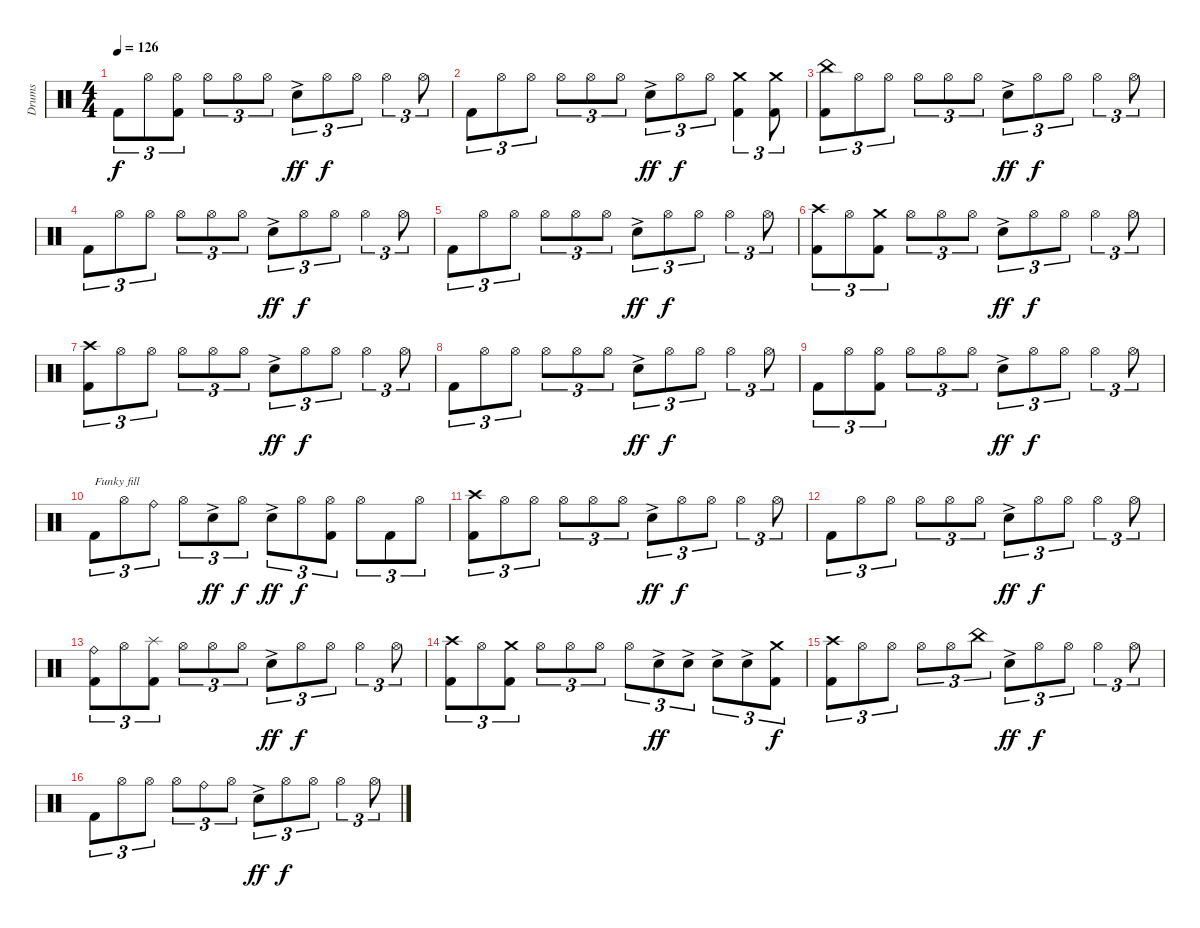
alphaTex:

\track ("Drums" "Drums") {instrument percussion}
\staff {score}
\articulation defaults
\ts (4 4)
\tempo 126
\clef neutral
\ks c "Kick (hit) 2".8{tu (3 2) dy f} "Hi-Hat (open)".8{tu (3 2)}
("Hi-Hat (open)" "Kick (hit) 2").8{tu (3 2)} "Hi-Hat (open)".8{tu (3 2)} "Hi-Hat (open)".8{tu (3 2)} "Hi-Hat (open)".8{tu (3 2)} "Electric Snare (hit)"{ac}.8{tu (3 2) dy ff} "Hi-Hat (open)".8{tu (3 2) dy f} "Hi-Hat (open)".8{tu (3 2)} "Hi-Hat (open)".4{tu (3 2)} "Hi-Hat (open)".8{tu (3 2)} |
"Kick (hit) 2".8{tu (3 2)} "Hi-Hat (open)".8{tu (3 2)} "Hi-Hat (open)".8{tu (3 2)} "Hi-Hat (open)".8{tu (3 2)} "Hi-Hat (open)".8{tu (3 2)} "Hi-Hat (open)".8{tu (3 2)} "Electric Snare (hit)"{ac}.8{tu (3 2) dy ff} "Hi-Hat (open)".8{tu (3 2) dy f} "Hi-Hat (open)".8{tu (3 2)} ("Crash medium (hit)" "Kick (hit) 2").4{tu (3 2)} ("Crash medium (hit)" "Kick (hit) 2").8{tu (3 2)} |
("China (hit)" "Kick (hit) 2").8{tu (3 2)} "Hi-Hat (open)".8{tu (3 2)} "Hi-Hat (open)".8{tu (3 2)} "Hi-Hat (open)".8{tu (3 2)} "Hi-Hat (open)".8{tu (3 2)} "Hi-Hat (open)".8{tu (3 2)} "Electric Snare (hit)"{ac}.8{tu (3 2) dy ff} "Hi-Hat (open)".8{tu (3 2) dy f} "Hi-Hat (open)".8{tu (3 2)} "Hi-Hat (open)".4{tu (3 2)} "Hi-Hat (open)".8{tu (3 2)} |
"Kick (hit) 2".8{tu (3 2)} "Hi-Hat (open)".8{tu (3 2)} "Hi-Hat (open)".8{tu (3 2)} "Hi-Hat (open)".8{tu (3 2)} "Hi-Hat (open)".8{tu (3 2)} "Hi-Hat (open)".8{tu (3 2)} "Electric Snare (hit)"{ac}.8{tu (3 2) dy ff} "Hi-Hat (open)".8{tu (3 2) dy f} "Hi-Hat (open)".8{tu (3 2)} "Hi-Hat (open)".4{tu (3 2)} "Hi-Hat (open)".8{tu (3 2)} |
"Kick (hit) 2".8{tu (3 2)} "Hi-Hat (open)".8{tu (3 2)} "Hi-Hat (open)".8{tu (3 2)} "Hi-Hat (open)".8{tu (3 2)} "Hi-Hat (open)".8{tu (3 2)} "Hi-Hat (open)".8{tu (3 2)} "Electric Snare (hit)"{ac}.8{tu (3 2) dy ff} "Hi-Hat (open)".8{tu (3 2) dy f} "Hi-Hat (open)".8{tu (3 2)} "Hi-Hat (open)".4{tu (3 2)} "Hi-Hat (open)".8{tu (3 2)} |
("Crash high (hit)" "Kick (hit) 2").8{tu (3 2)} "Hi-Hat (open)".8{tu (3 2)} ("Crash medium (hit)" "Kick (hit) 2").8{tu (3 2)} "Hi-Hat (open)".8{tu (3 2)} "Hi-Hat (open)".8{tu (3 2)} "Hi-Hat (open)".8{tu (3 2)} "Electric Snare (hit)"{ac}.8{tu (3 2) dy ff} "Hi-Hat (open)".8{tu (3 2) dy f} "Hi-Hat (open)".8{tu (3 2)} "Hi-Hat (open)".4{tu (3 2)} "Hi-Hat (open)".8{tu (3 2)} |
("Crash high (hit)" "Kick (hit) 2").8{tu (3 2)} "Hi-Hat (open)".8{tu (3 2)} "Hi-Hat (open)".8{tu (3 2)} "Hi-Hat (open)".8{tu (3 2)} "Hi-Hat (open)".8{tu (3 2)} "Hi-Hat (open)".8{tu (3 2)} "Electric Snare (hit)"{ac}.8{tu (3 2) dy ff} "Hi-Hat (open)".8{tu (3 2) dy f} "Hi-Hat (open)".8{tu (3 2)} "Hi-Hat (open)".4{tu (3 2)} "Hi-Hat (open)".8{tu (3 2)} |
"Kick (hit) 2".8{tu (3 2)} "Hi-Hat (open)".8{tu (3 2)} "Hi-Hat (open)".8{tu (3 2)} "Hi-Hat (open)".8{tu (3 2)} "Hi-Hat (open)".8{tu (3 2)} "Hi-Hat (open)".8{tu (3 2)} "Electric Snare (hit)"{ac}.8{tu (3 2) dy ff} "Hi-Hat (open)".8{tu (3 2) dy f} "Hi-Hat (open)".8{tu (3 2)} "Hi-Hat (open)".4{tu (3 2)} "Hi-Hat (open)".8{tu (3 2)} |
"Kick (hit) 2".8{tu (3 2)} "Hi-Hat (open)".8{tu (3 2)} ("Hi-Hat (open)" "Kick (hit) 2").8{tu (3 2)} "Hi-Hat (open)".8{tu (3 2)} "Hi-Hat (open)".8{tu (3 2)} "Hi-Hat (open)".8{tu (3 2)} "Electric Snare (hit)"{ac}.8{tu (3 2) dy ff} "Hi-Hat (open)".8{tu (3 2) dy f} "Hi-Hat (open)".8{tu (3 2)} "Hi-Hat (open)".4{tu (3 2)} "Hi-Hat (open)".8{tu (3 2)} |
"Kick (hit) 2".8{tu (3 2) txt "Funky fill"} "Hi-Hat (open)".8{tu (3 2)} "Ride (bell)".8{tu (3 2)} "Hi-Hat (open)".8{tu (3 2)} "Electric Snare (hit)"{ac}.8{tu (3 2) dy ff} "Hi-Hat (open)".8{tu (3 2) dy f} "Electric Snare (hit)"{ac}.8{tu (3 2) dy ff} "Hi-Hat (open)".8{tu (3 2) dy f} ("Hi-Hat (open)" "Kick (hit) 2").8{tu (3 2)} "Hi-Hat (open)".8{tu (3 2)} "Kick (hit) 2".8{tu (3 2)} "Hi-Hat (open)".8{tu (3 2)} |
("Crash high (hit)" "Kick (hit) 2").8{tu (3 2)} "Hi-Hat (open)".8{tu (3 2)} "Hi-Hat (open)".8{tu (3 2)} "Hi-Hat (open)".8{tu (3 2)} "Hi-Hat (open)".8{tu (3 2)} "Hi-Hat (open)".8{tu (3 2)} "Electric Snare (hit)"{ac}.8{tu (3 2) dy ff} "Hi-Hat (open)".8{tu (3 2) dy f} "Hi-Hat (open)".8{tu (3 2)} "Hi-Hat (open)".4{tu (3 2)} "Hi-Hat (open)".8{tu (3 2)} |
"Kick (hit) 2".8{tu (3 2)} "Hi-Hat (open)".8{tu (3 2)} "Hi-Hat (open)".8{tu (3 2)} "Hi-Hat (open)".8{tu (3 2)} "Hi-Hat (open)".8{tu (3 2)} "Hi-Hat (open)".8{tu (3 2)} "Electric Snare (hit)"{ac}.8{tu (3 2) dy ff} "Hi-Hat (open)".8{tu (3 2) dy f} "Hi-Hat (open)".8{tu (3 2)} "Hi-Hat (open)".4{tu (3 2)} "Hi-Hat (open)".8{tu (3 2)} |
("Ride (bell)" "Kick (hit) 2").8{tu (3 2)} "Hi-Hat (open)".8{tu (3 2)} ("Splash (hit)" "Kick (hit) 2").8{tu (3 2)} "Hi-Hat (open)".8{tu (3 2)} "Hi-Hat (open)".8{tu (3 2)} "Hi-Hat (open)".8{tu (3 2)} "Electric Snare (hit)"{ac}.8{tu (3 2) dy ff} "Hi-Hat (open)".8{tu (3 2) dy f} "Hi-Hat (open)".8{tu (3 2)} "Hi-Hat (open)".4{tu (3 2)} "Hi-Hat (open)".8{tu (3 2)} |
("Crash high (hit)" "Kick (hit) 2").8{tu (3 2)} "Hi-Hat (open)".8{tu (3 2)} ("Crash medium (hit)" "Kick (hit) 2").8{tu (3 2)} "Hi-Hat (open)".8{tu (3 2)} "Hi-Hat (open)".8{tu (3 2)} "Hi-Hat (open)".8{tu (3 2)} "Hi-Hat (open)".8{tu (3 2)} "Electric Snare (hit)"{ac}.8{tu (3 2) dy ff} "Electric Snare (hit)"{ac}.8{tu (3 2)} "Electric Snare (hit)"{ac}.8{tu (3 2)} "Electric Snare (hit)"{ac}.8{tu (3 2)} ("Crash medium (hit)" "Kick (hit) 2").8{tu (3 2) dy f} |
("Crash high (hit)" "Kick (hit) 2").8{tu (3 2)} "Hi-Hat (open)".8{tu (3 2)} "Hi-Hat (open)".8{tu (3 2)} "Hi-Hat (open)".8{tu (3 2)} "Hi-Hat (open)".8{tu (3 2)} "China (hit)".8{tu (3 2)} "Electric Snare (hit)"{ac}.8{tu (3 2) dy ff} "Hi-Hat (open)".8{tu (3 2) dy f} "Hi-Hat (open)".8{tu (3 2)} "Hi-Hat (open)".4{tu (3 2)} "Hi-Hat (open)".8{tu (3 2)} |
"Kick (hit) 2".8{tu (3 2)} "Hi-Hat (open)".8{tu (3 2)} "Hi-Hat (open)".8{tu (3 2)} "Hi-Hat (open)".8{tu (3 2)} "Ride (bell)".8{tu (3 2)} "Hi-Hat (open)".8{tu (3 2)} "Electric Snare (hit)"{ac}.8{tu (3 2) dy ff} "Hi-Hat (open)".8{tu (3 2) dy f} "Hi-Hat (open)".8{tu (3 2)} "Hi-Hat (open)".4{tu (3 2)} "Hi-Hat (open)".8{tu (3 2)}
